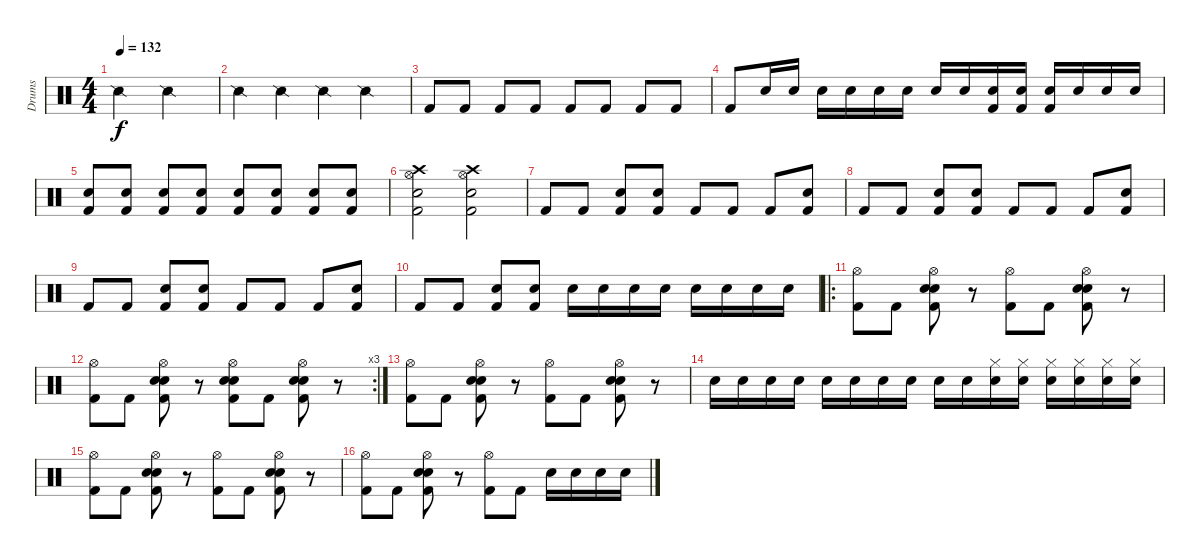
\track ("Drums" "Drums") {instrument percussion}
\staff {score}
\articulation defaults
\ts (4 4)
\tempo 132
\clef neutral
\ks c "Snare (side stick) 2".2{dy f} "Snare (side stick) 2".2
|
"Snare (side stick) 2".4 "Snare (side stick) 2".4 "Snare (side stick) 2".4 "Snare (side stick) 2".4 |
"Kick (hit) 2".8 "Kick (hit) 2".8 "Kick (hit) 2".8 "Kick (hit) 2".8 "Kick (hit) 2".8 "Kick (hit) 2".8 "Kick (hit) 2".8 "Kick (hit) 2".8 |
"Kick (hit) 2".8 "Electric Snare (hit)".16 "Electric Snare (hit)".16 "Electric Snare (hit)".16 "Electric Snare (hit)".16 "Snare (hit) 2".16 "Snare (hit) 2".16 "Snare (hit) 2".16 "Snare (hit) 2".16 ("Kick (hit) 2" "Snare (hit) 2").16 ("Kick (hit) 2" "Snare (hit) 2").16 ("Kick (hit) 2" "Snare (hit) 2").16 "Electric Snare (hit)".16 "Electric Snare (hit)".16 "Electric Snare (hit)".16 |
("Kick (hit) 2" "Snare (hit) 2").8 ("Kick (hit) 2" "Snare (hit) 2").8 ("Kick (hit) 2" "Snare (hit) 2").8 ("Kick (hit) 2" "Snare (hit) 2").8 ("Kick (hit) 2" "Snare (hit) 2").8 ("Kick (hit) 2" "Snare (hit) 2").8 ("Kick (hit) 2" "Snare (hit) 2").8 ("Kick (hit) 2" "Snare (hit) 2").8 |
("Crash high (hit)" "Hi-Hat (open)" "Snare (hit) 2" "Kick (hit) 2").2 ("Crash high (hit)" "Hi-Hat (open)" "Snare (hit) 2" "Kick (hit) 2").2 |
"Kick (hit) 2".8 "Kick (hit) 2".8 ("Snare (hit) 2" "Kick (hit) 2").8 ("Snare (hit) 2" "Kick (hit) 2").8 "Kick (hit) 2".8 "Kick (hit) 2".8 "Kick (hit) 2".8 ("Snare (hit) 2" "Kick (hit) 2").8 |
"Kick (hit) 2".8 "Kick (hit) 2".8 ("Snare (hit) 2" "Kick (hit) 2").8 ("Snare (hit) 2" "Kick (hit) 2").8 "Kick (hit) 2".8 "Kick (hit) 2".8 "Kick (hit) 2".8 ("Snare (hit) 2" "Kick (hit) 2").8 |
"Kick (hit) 2".8 "Kick (hit) 2".8 ("Snare (hit) 2" "Kick (hit) 2").8 ("Snare (hit) 2" "Kick (hit) 2").8 "Kick (hit) 2".8 "Kick (hit) 2".8 "Kick (hit) 2".8 ("Snare (hit) 2" "Kick (hit) 2").8 |
"Kick (hit) 2".8 "Kick (hit) 2".8 ("Snare (hit) 2" "Kick (hit) 2").8 ("Snare (hit) 2" "Kick (hit) 2").8 "Snare (hit) 2".16 "Snare (hit) 2".16 "Snare (hit) 2".16 "Snare (hit) 2".16 "Snare (hit) 2".16 "Snare (hit) 2".16 "Snare (hit) 2".16 "Snare (hit) 2".16 |
\ro
("Hi-Hat (open)" "Kick (hit) 2").8 "Kick (hit) 2".8 ("Hi-Hat (open)" "Electric Snare (hit)" "Snare (hit) 2" "Kick (hit) 2").8 r.8 ("Hi-Hat (open)" "Kick (hit) 2").8 "Kick (hit) 2".8 ("Hi-Hat (open)" "Electric Snare (hit)" "Snare (hit) 2" "Kick (hit) 2").8 r.8 |
\rc 3
("Hi-Hat (open)" "Kick (hit) 2").8 "Kick (hit) 2".8 ("Hi-Hat (open)" "Electric Snare (hit)" "Snare (hit) 2" "Kick (hit) 2").8 r.8 ("Hi-Hat (open)" "Electric Snare (hit)" "Snare (hit) 2" "Kick (hit) 2").8 "Kick (hit) 2".8 ("Hi-Hat (open)" "Electric Snare (hit)" "Snare (hit) 2" "Kick (hit) 2").8 r.8 |
("Hi-Hat (open)" "Kick (hit) 2").8 "Kick (hit) 2".8 ("Hi-Hat (open)" "Electric Snare (hit)" "Snare (hit) 2" "Kick (hit) 2").8 r.8 ("Hi-Hat (open)" "Kick (hit) 2").8 "Kick (hit) 2".8 ("Hi-Hat (open)" "Electric Snare (hit)" "Snare (hit) 2" "Kick (hit) 2").8 r.8 |
"Snare (hit) 2".16 "Snare (hit) 2".16 "Snare (hit) 2".16 "Snare (hit) 2".16 "Snare (hit) 2".16 "Snare (hit) 2".16 "Electric Snare (hit)".16 "Electric Snare (hit)".16 "Electric Snare (hit)".16 "Electric Snare (hit)".16 ("Hi-Hat (closed)" "Electric Snare (hit)").16 ("Hi-Hat (closed)" "Electric Snare (hit)").16 ("Hi-Hat (closed)" "Electric Snare (hit)").16 ("Hi-Hat (closed)" "Electric Snare (hit)").16 ("Hi-Hat (closed)" "Electric Snare (hit)").16 ("Hi-Hat (closed)" "Electric Snare (hit)").16 |
("Hi-Hat (open)" "Kick (hit) 2").8 "Kick (hit) 2".8 ("Hi-Hat (open)" "Electric Snare (hit)" "Snare (hit) 2" "Kick (hit) 2").8 r.8 ("Hi-Hat (open)" "Kick (hit) 2").8 "Kick (hit) 2".8 ("Hi-Hat (open)" "Electric Snare (hit)" "Snare (hit) 2" "Kick (hit) 2").8 r.8 |
("Hi-Hat (open)" "Kick (hit) 2").8 "Kick (hit) 2".8 ("Hi-Hat (open)" "Electric Snare (hit)" "Snare (hit) 2" "Kick (hit) 2").8 r.8 ("Hi-Hat (open)" "Kick (hit) 2").8 "Kick (hit) 2".8 "Snare (hit) 2".16 "Snare (hit) 2".16 "Snare (hit) 2".16 "Snare (hit) 2".16
